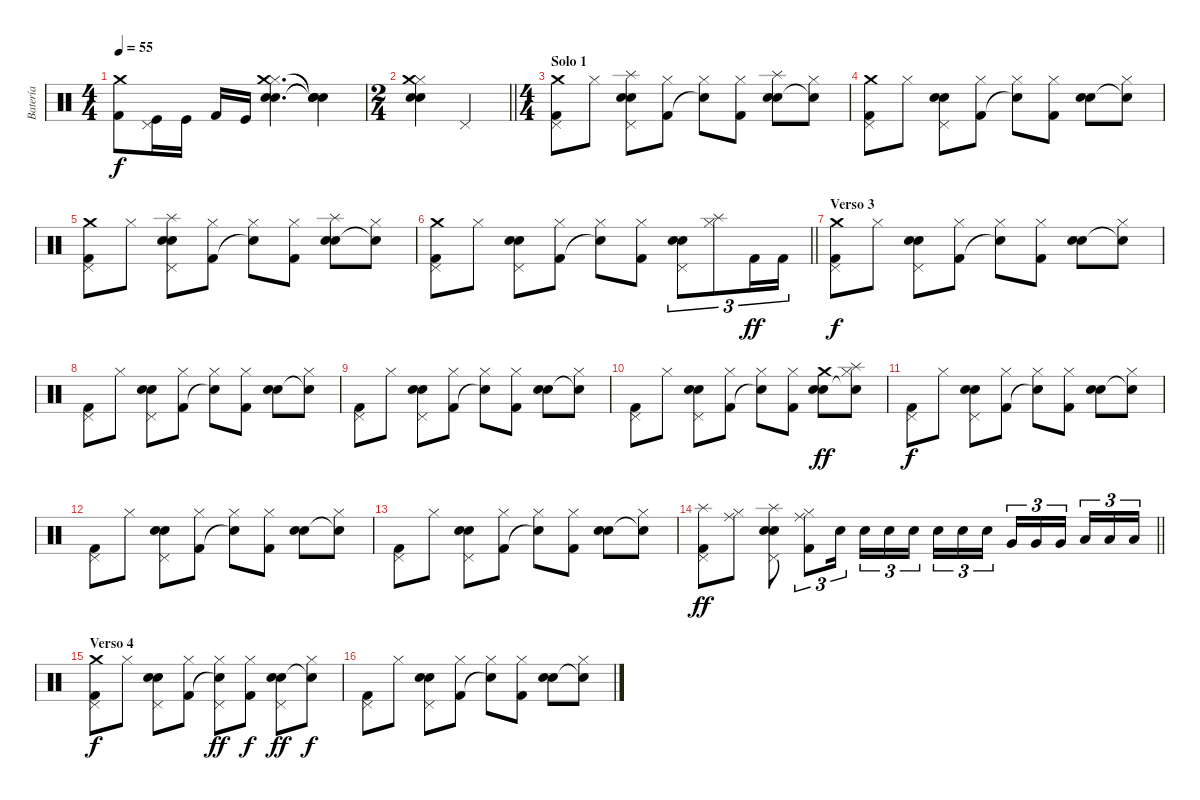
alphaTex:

\track ("Batería" "Batería") {instrument percussion}
\staff {score}
\articulation defaults
\ts (4 4)
\tempo 55
\clef neutral
\ks c
("Crash medium (hit)" "Kick (hit) 2").8{dy f} ("Kick (hit)" "Pedal Hi-Hat (hit)").16 "Kick (hit)".16 "Kick (hit) 2".16 "Kick (hit)".16 ("Electric Snare (hit)" "Snare (hit) 2" "Hi-Hat (closed)" "Crash medium (hit)").4{d} ("Snare (hit)"{t} "Snare (hit)"{t} "Snare (hit)"{t} "Snare (hit)"{t}).4 |
\ts (2 4)
\barLineRight lightlight
("Electric Snare (hit)" "Snare (hit) 2" "Hi-Hat (closed)" "Crash medium (hit)").4 "Pedal Hi-Hat (hit)".4 |
\ts (4 4)
\section ("" "Solo 1")
("Crash medium (hit)" "Kick (hit) 2" "Pedal Hi-Hat (hit)").8 "Hi-Hat (closed)".8 ("Electric Snare (hit)" "Snare (hit) 2" "Pedal Hi-Hat (hit)" "Splash (hit)").8 ("Kick (hit) 2" "Hi-Hat (closed)").8 ("Snare (hit)"{t} "Hi-Hat (closed)").8 ("Kick (hit) 2" "Hi-Hat (closed)").8 ("Electric Snare (hit)" "Snare (hit) 2" "Splash (hit)").8 ("Snare (hit)"{t} "Hi-Hat (closed)").8 |
("Crash medium (hit)" "Kick (hit) 2" "Pedal Hi-Hat (hit)").8 "Hi-Hat (closed)".8 ("Electric Snare (hit)" "Snare (hit) 2" "Pedal Hi-Hat (hit)").8 ("Kick (hit) 2" "Hi-Hat (closed)").8 ("Snare (hit)"{t} "Hi-Hat (closed)").8 ("Kick (hit) 2" "Hi-Hat (closed)").8 ("Electric Snare (hit)" "Snare (hit) 2").8 ("Snare (hit)"{t} "Hi-Hat (closed)").8 |
("Crash medium (hit)" "Kick (hit) 2" "Pedal Hi-Hat (hit)").8 "Hi-Hat (closed)".8 ("Electric Snare (hit)" "Snare (hit) 2" "Pedal Hi-Hat (hit)" "Splash (hit)").8 ("Kick (hit) 2" "Hi-Hat (closed)").8 ("Snare (hit)"{t} "Hi-Hat (closed)").8 ("Kick (hit) 2" "Hi-Hat (closed)").8 ("Electric Snare (hit)" "Snare (hit) 2" "Splash (hit)").8 ("Snare (hit)"{t} "Hi-Hat (closed)").8 |
\barLineRight lightlight
("Crash medium (hit)" "Kick (hit) 2" "Pedal Hi-Hat (hit)").8 "Hi-Hat (closed)".8 ("Electric Snare (hit)" "Snare (hit) 2" "Pedal Hi-Hat (hit)").8 ("Kick (hit) 2" "Hi-Hat (closed)").8 ("Snare (hit)"{t} "Hi-Hat (closed)").8 ("Kick (hit) 2" "Hi-Hat (closed)").8 ("Electric Snare (hit)" "Snare (hit) 2" "Pedal Hi-Hat (hit)").8{tu (3 2)} ("Splash (hit)" "Hi-Hat (closed)").8{tu (3 2)} "Kick (hit) 2".16{tu (3 2) dy ff} "Kick (hit) 2".16{tu (3 2)} |
\section ("" "Verso 3")
("Crash medium (hit)" "Kick (hit) 2" "Pedal Hi-Hat (hit)").8{dy f} "Hi-Hat (closed)".8 ("Electric Snare (hit)" "Snare (hit) 2" "Pedal Hi-Hat (hit)").8 ("Kick (hit) 2" "Hi-Hat (closed)").8 ("Snare (hit)"{t} "Hi-Hat (closed)").8 ("Kick (hit) 2" "Hi-Hat (closed)").8 ("Electric Snare (hit)" "Snare (hit) 2").8 ("Snare (hit)"{t} "Hi-Hat (closed)").8 |
("Kick (hit) 2" "Pedal Hi-Hat (hit)").8 "Hi-Hat (closed)".8 ("Electric Snare (hit)" "Snare (hit) 2" "Pedal Hi-Hat (hit)").8 ("Kick (hit) 2" "Hi-Hat (closed)").8 ("Snare (hit)"{t} "Hi-Hat (closed)").8 ("Kick (hit) 2" "Hi-Hat (closed)").8 ("Electric Snare (hit)" "Snare (hit) 2").8 ("Snare (hit)"{t} "Hi-Hat (closed)").8 |
("Kick (hit) 2" "Pedal Hi-Hat (hit)").8 "Hi-Hat (closed)".8 ("Electric Snare (hit)" "Snare (hit) 2" "Pedal Hi-Hat (hit)").8 ("Kick (hit) 2" "Hi-Hat (closed)").8 ("Snare (hit)"{t} "Hi-Hat (closed)").8 ("Kick (hit) 2" "Hi-Hat (closed)").8 ("Electric Snare (hit)" "Snare (hit) 2").8 ("Snare (hit)"{t} "Hi-Hat (closed)").8 |
("Kick (hit) 2" "Pedal Hi-Hat (hit)").8 "Hi-Hat (closed)".8 ("Electric Snare (hit)" "Snare (hit) 2" "Pedal Hi-Hat (hit)").8 ("Kick (hit) 2" "Hi-Hat (closed)").8 ("Snare (hit)"{t} "Hi-Hat (closed)").8 ("Kick (hit) 2" "Hi-Hat (closed)").8 ("Electric Snare (hit)" "Snare (hit) 2" "Crash medium (hit)").8{dy ff} ("Snare (hit)"{t} "Hi-Hat (closed)" "Splash (hit)").8 |
("Kick (hit) 2" "Pedal Hi-Hat (hit)").8{dy f} "Hi-Hat (closed)".8 ("Electric Snare (hit)" "Snare (hit) 2" "Pedal Hi-Hat (hit)").8 ("Kick (hit) 2" "Hi-Hat (closed)").8 ("Snare (hit)"{t} "Hi-Hat (closed)").8 ("Kick (hit) 2" "Hi-Hat (closed)").8 ("Electric Snare (hit)" "Snare (hit) 2").8 ("Snare (hit)"{t} "Hi-Hat (closed)").8 |
("Kick (hit) 2" "Pedal Hi-Hat (hit)").8 "Hi-Hat (closed)".8 ("Electric Snare (hit)" "Snare (hit) 2" "Pedal Hi-Hat (hit)").8 ("Kick (hit) 2" "Hi-Hat (closed)").8 ("Snare (hit)"{t} "Hi-Hat (closed)").8 ("Kick (hit) 2" "Hi-Hat (closed)").8 ("Electric Snare (hit)" "Snare (hit) 2").8 ("Snare (hit)"{t} "Hi-Hat (closed)").8 |
("Kick (hit) 2" "Pedal Hi-Hat (hit)").8 "Hi-Hat (closed)".8 ("Electric Snare (hit)" "Snare (hit) 2" "Pedal Hi-Hat (hit)").8 ("Kick (hit) 2" "Hi-Hat (closed)").8 ("Snare (hit)"{t} "Hi-Hat (closed)").8 ("Kick (hit) 2" "Hi-Hat (closed)").8 ("Electric Snare (hit)" "Snare (hit) 2").8 ("Snare (hit)"{t} "Hi-Hat (closed)").8 |
\barLineRight lightlight
("Kick (hit) 2" "Pedal Hi-Hat (hit)" "Splash (hit)").8{dy ff} ("Hi-Hat (closed)" "Ride (middle)").8 ("Electric Snare (hit)" "Snare (hit) 2" "Pedal Hi-Hat (hit)" "Splash (hit)").8 ("Kick (hit) 2" "Hi-Hat (closed)" "Ride (middle)").8{tu (3 2)} "Snare (hit) 2".16{tu (3 2)} "Electric Snare (hit)".16{tu (3 2)} "Electric Snare (hit)".16{tu (3 2)} "Electric Snare (hit)".16{tu (3 2) beam splitsecondary} "Snare (hit) 2".16{tu (3 2)} "Snare (hit) 2".16{tu (3 2)} "Snare (hit) 2".16{tu (3 2)} "Very Low Tom (hit)".16{tu (3 2)} "Very Low Tom (hit)".16{tu (3 2)} "Very Low Tom (hit)".16{tu (3 2) beam splitsecondary} "Low Floor Tom (hit)".16{tu (3 2)} "Low Floor Tom (hit)".16{tu (3 2)} "Low Floor Tom (hit)".16{tu (3 2)} |
\section ("" "Verso 4")
("Crash medium (hit)" "Kick (hit) 2" "Pedal Hi-Hat (hit)").8{dy f} "Hi-Hat (closed)".8 ("Electric Snare (hit)" "Snare (hit) 2" "Pedal Hi-Hat (hit)").8 ("Kick (hit) 2" "Hi-Hat (closed)").8 ("Snare (hit)"{t} "Hi-Hat (closed)" "Pedal Hi-Hat (hit)").8{dy ff} ("Kick (hit) 2" "Hi-Hat (closed)").8{dy f} ("Electric Snare (hit)" "Snare (hit) 2" "Pedal Hi-Hat (hit)").8{dy ff} ("Snare (hit)"{t} "Hi-Hat (closed)").8{dy f} |
("Kick (hit) 2" "Pedal Hi-Hat (hit)").8 "Hi-Hat (closed)".8 ("Electric Snare (hit)" "Snare (hit) 2" "Pedal Hi-Hat (hit)").8 ("Kick (hit) 2" "Hi-Hat (closed)").8 ("Snare (hit)"{t} "Hi-Hat (closed)").8 ("Kick (hit) 2" "Hi-Hat (closed)").8 ("Electric Snare (hit)" "Snare (hit) 2").8 ("Snare (hit)"{t} "Hi-Hat (closed)").8
